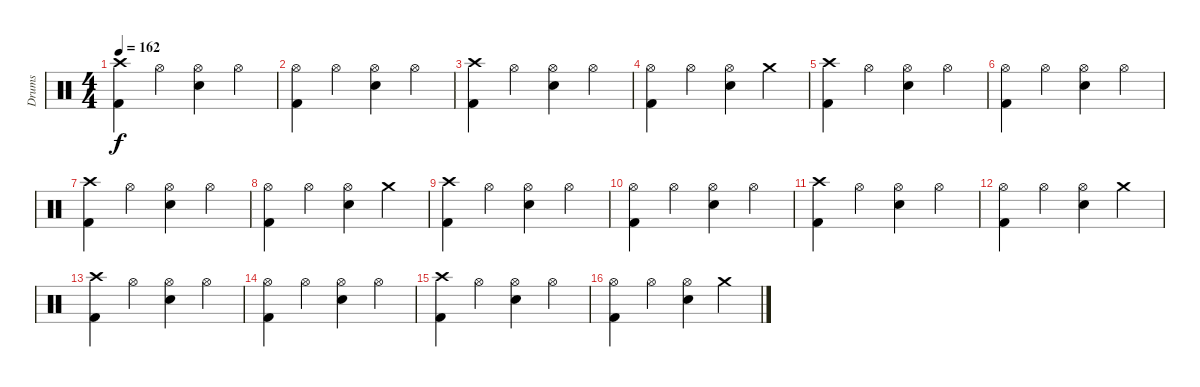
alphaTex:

\track ("Drums" "Drums") {instrument percussion}
\staff {score}
\articulation defaults
\ts (4 4)
\tempo 162
\clef neutral
\ks c
("Crash high (hit)" "Kick (hit) 2").4{dy f} "Hi-Hat (open)".4 ("Hi-Hat (open)" "Snare (hit) 2").4 "Hi-Hat (open)".4 |
("Hi-Hat (open)" "Kick (hit) 2").4 "Hi-Hat (open)".4 ("Hi-Hat (open)" "Snare (hit) 2").4 "Hi-Hat (open)".4 |
("Crash high (hit)" "Kick (hit) 2").4 "Hi-Hat (open)".4 ("Hi-Hat (open)" "Snare (hit) 2").4 "Hi-Hat (open)".4 |
("Hi-Hat (open)" "Kick (hit) 2").4 "Hi-Hat (open)".4 ("Hi-Hat (open)" "Snare (hit) 2").4 "Crash medium (hit)".4 |
("Crash high (hit)" "Kick (hit) 2").4 "Hi-Hat (open)".4 ("Hi-Hat (open)" "Snare (hit) 2").4 "Hi-Hat (open)".4 |
("Hi-Hat (open)" "Kick (hit) 2").4 "Hi-Hat (open)".4 ("Hi-Hat (open)" "Snare (hit) 2").4 "Hi-Hat (open)".4 |
("Crash high (hit)" "Kick (hit) 2").4 "Hi-Hat (open)".4 ("Hi-Hat (open)" "Snare (hit) 2").4 "Hi-Hat (open)".4 |
("Hi-Hat (open)" "Kick (hit) 2").4 "Hi-Hat (open)".4 ("Hi-Hat (open)" "Snare (hit) 2").4 "Crash medium (hit)".4 |
("Crash high (hit)" "Kick (hit) 2").4 "Hi-Hat (open)".4 ("Hi-Hat (open)" "Snare (hit) 2").4 "Hi-Hat (open)".4 |
("Hi-Hat (open)" "Kick (hit) 2").4 "Hi-Hat (open)".4 ("Hi-Hat (open)" "Snare (hit) 2").4 "Hi-Hat (open)".4 |
("Crash high (hit)" "Kick (hit) 2").4 "Hi-Hat (open)".4 ("Hi-Hat (open)" "Snare (hit) 2").4 "Hi-Hat (open)".4 |
("Hi-Hat (open)" "Kick (hit) 2").4 "Hi-Hat (open)".4 ("Hi-Hat (open)" "Snare (hit) 2").4 "Crash medium (hit)".4 |
("Crash high (hit)" "Kick (hit) 2").4 "Hi-Hat (open)".4 ("Hi-Hat (open)" "Snare (hit) 2").4 "Hi-Hat (open)".4 |
("Hi-Hat (open)" "Kick (hit) 2").4 "Hi-Hat (open)".4 ("Hi-Hat (open)" "Snare (hit) 2").4 "Hi-Hat (open)".4 |
("Crash high (hit)" "Kick (hit) 2").4 "Hi-Hat (open)".4 ("Hi-Hat (open)" "Snare (hit) 2").4 "Hi-Hat (open)".4 |
("Hi-Hat (open)" "Kick (hit) 2").4 "Hi-Hat (open)".4 ("Hi-Hat (open)" "Snare (hit) 2").4 "Crash medium (hit)".4
